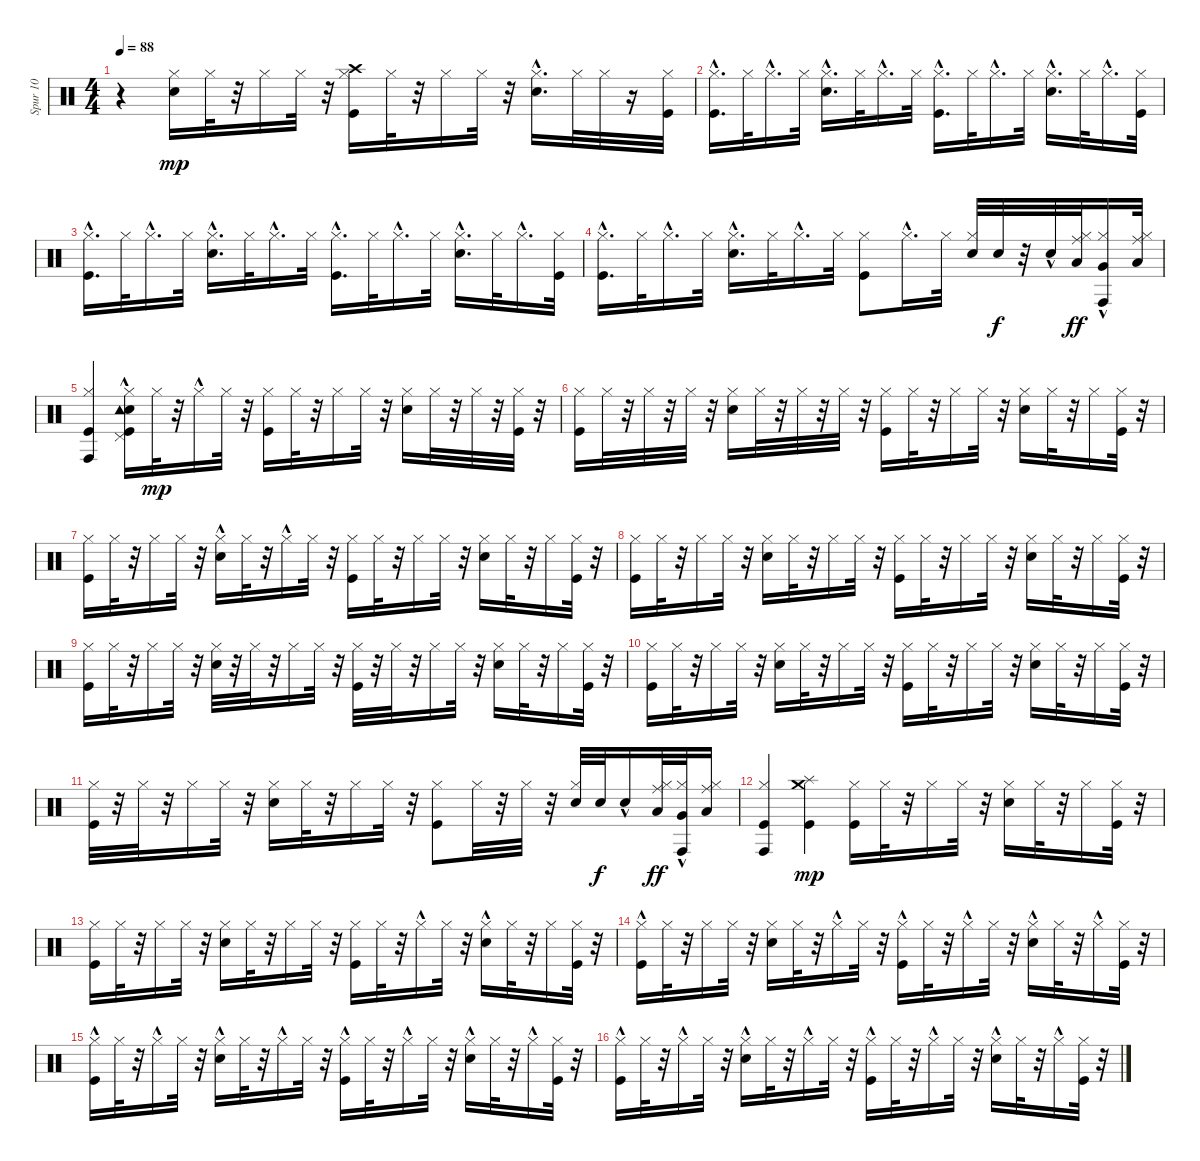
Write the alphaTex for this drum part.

\track ("Spur 10" "Spur 10") {instrument percussion}
\staff {score}
\articulation defaults
\ts (4 4)
\tempo 88
\clef neutral
\ks c
r.4{dy mp} ("Snare (hit) 2" "Hi-Hat (closed)").16 "Hi-Hat (closed)".32 r.32 "Hi-Hat (closed)".16 "Hi-Hat (closed)".32 r.32 ("Kick (hit)" "Hi-Hat (closed)" "Crash high (hit)").16 "Hi-Hat (closed)".32 r.32 "Hi-Hat (closed)".16 "Hi-Hat (closed)".32 r.32 ("Snare (hit) 2" "Hi-Hat (closed)"{hac}).16{d} "Hi-Hat (closed)".32 "Hi-Hat (closed)".32 r.16 ("Kick (hit)" "Hi-Hat (closed)").32 |
("Kick (hit)" "Hi-Hat (closed)"{hac}).16{d} "Hi-Hat (closed)".32 "Hi-Hat (closed)"{hac}.16{d} "Hi-Hat (closed)".32 ("Snare (hit) 2" "Hi-Hat (closed)"{hac}).16{d} "Hi-Hat (closed)".32 "Hi-Hat (closed)"{hac}.16{d} "Hi-Hat (closed)".32 ("Kick (hit)"{hac} "Hi-Hat (closed)"{hac}).16{d} "Hi-Hat (closed)".32 "Hi-Hat (closed)"{hac}.16{d} "Hi-Hat (closed)".32 ("Snare (hit) 2" "Hi-Hat (closed)"{hac}).16{d} "Hi-Hat (closed)".32 "Hi-Hat (closed)"{hac}.16{d} ("Kick (hit)" "Hi-Hat (closed)").32 |
("Kick (hit)" "Hi-Hat (closed)"{hac}).16{d} "Hi-Hat (closed)".32 "Hi-Hat (closed)"{hac}.16{d} "Hi-Hat (closed)".32 ("Snare (hit) 2"{hac} "Hi-Hat (closed)"{hac}).16{d} "Hi-Hat (closed)".32 "Hi-Hat (closed)"{hac}.16{d} "Hi-Hat (closed)".32 ("Kick (hit)"{hac} "Hi-Hat (closed)"{hac}).16{d} "Hi-Hat (closed)".32 "Hi-Hat (closed)"{hac}.16{d} "Hi-Hat (closed)".32 ("Snare (hit) 2" "Hi-Hat (closed)"{hac}).16{d} "Hi-Hat (closed)".32 "Hi-Hat (closed)"{hac}.16{d} ("Kick (hit)" "Hi-Hat (closed)").32 |
("Kick (hit)" "Hi-Hat (closed)"{hac}).16{d} "Hi-Hat (closed)".32 "Hi-Hat (closed)"{hac}.16{d} "Hi-Hat (closed)".32 ("Snare (hit) 2"{hac} "Hi-Hat (closed)"{hac}).16{d} "Hi-Hat (closed)".32 "Hi-Hat (closed)"{hac}.16{d} "Hi-Hat (closed)".32 ("Kick (hit)" "Hi-Hat (closed)").8 "Hi-Hat (closed)"{hac}.16{d} "Hi-Hat (closed)".32 ("Snare (hit) 2" "Hi-Hat (closed)").32 "Snare (hit) 2".32{dy f} r.32 "Snare (hit) 2"{hac}.32 ("Hi-Hat (closed)" "Low Tom (hit)" "Ride (middle)").32{dy ff} ("Hi-Hat (closed)" "Very Low Tom (hit)" "Conga high (hit)"{hac}).16 ("Low Floor Tom (hit)" "Hi-Hat (closed)" "Ride (middle)").32 |
("Kick (hit)" "Hi-Hat (closed)" "Conga high (hit)").4 ("Kick (hit)" "Snare (hit) 2" "Hi-Hat (closed)"{hac} "Pedal Hi-Hat (hit)" "Tambourine (hit)").16 "Hi-Hat (closed)".32{dy mp} r.32 "Hi-Hat (closed)"{hac}.16 "Hi-Hat (closed)".32 r.32 ("Kick (hit)" "Hi-Hat (closed)").16 "Hi-Hat (closed)".32 r.32 "Hi-Hat (closed)".16 "Hi-Hat (closed)".32 r.32 ("Snare (hit) 2" "Hi-Hat (closed)").16 "Hi-Hat (closed)".32 r.32 "Hi-Hat (closed)".32 r.32 ("Kick (hit)" "Hi-Hat (closed)").32 r.32 |
("Kick (hit)" "Hi-Hat (closed)").16 "Hi-Hat (closed)".32 r.32 "Hi-Hat (closed)".32 r.32 "Hi-Hat (closed)".32 r.32 ("Snare (hit) 2" "Hi-Hat (closed)").16 "Hi-Hat (closed)".32 r.32 "Hi-Hat (closed)".32 r.32 "Hi-Hat (closed)".32 r.32 ("Kick (hit)" "Hi-Hat (closed)").16 "Hi-Hat (closed)".32 r.32 "Hi-Hat (closed)".16 "Hi-Hat (closed)".32 r.32 ("Snare (hit) 2" "Hi-Hat (closed)").16 "Hi-Hat (closed)".32 r.32 "Hi-Hat (closed)".16 ("Kick (hit)" "Hi-Hat (closed)").32 r.32 |
("Kick (hit)" "Hi-Hat (closed)").16 "Hi-Hat (closed)".32 r.32 "Hi-Hat (closed)".16 "Hi-Hat (closed)".32 r.32 ("Snare (hit) 2" "Hi-Hat (closed)"{hac}).16 "Hi-Hat (closed)".32 r.32 "Hi-Hat (closed)"{hac}.16 "Hi-Hat (closed)".32 r.32 ("Kick (hit)" "Hi-Hat (closed)").16 "Hi-Hat (closed)".32 r.32 "Hi-Hat (closed)".16 "Hi-Hat (closed)".32 r.32 ("Snare (hit) 2" "Hi-Hat (closed)").16 "Hi-Hat (closed)".32 r.32 "Hi-Hat (closed)".16 ("Kick (hit)" "Hi-Hat (closed)").32 r.32 |
("Kick (hit)" "Hi-Hat (closed)").16 "Hi-Hat (closed)".32 r.32 "Hi-Hat (closed)".16 "Hi-Hat (closed)".32 r.32 ("Snare (hit) 2" "Hi-Hat (closed)").16 "Hi-Hat (closed)".32 r.32 "Hi-Hat (closed)".16 "Hi-Hat (closed)".32 r.32 ("Kick (hit)" "Hi-Hat (closed)").16 "Hi-Hat (closed)".32 r.32 "Hi-Hat (closed)".16 "Hi-Hat (closed)".32 r.32 ("Snare (hit) 2" "Hi-Hat (closed)").16 "Hi-Hat (closed)".32 r.32 "Hi-Hat (closed)".16 ("Kick (hit)" "Hi-Hat (closed)").32 r.32 |
("Kick (hit)" "Hi-Hat (closed)").16 "Hi-Hat (closed)".32 r.32 "Hi-Hat (closed)".16 "Hi-Hat (closed)".32 r.32 ("Snare (hit) 2" "Hi-Hat (closed)").32 r.32 "Hi-Hat (closed)".32 r.32 "Hi-Hat (closed)".16 "Hi-Hat (closed)".32 r.32 ("Kick (hit)" "Hi-Hat (closed)").32 r.32 "Hi-Hat (closed)".32 r.32 "Hi-Hat (closed)".16 "Hi-Hat (closed)".32 r.32 ("Snare (hit) 2" "Hi-Hat (closed)").16 "Hi-Hat (closed)".32 r.32 "Hi-Hat (closed)".16 ("Kick (hit)" "Hi-Hat (closed)").32 r.32 |
("Kick (hit)" "Hi-Hat (closed)").16 "Hi-Hat (closed)".32 r.32 "Hi-Hat (closed)".16 "Hi-Hat (closed)".32 r.32 ("Snare (hit) 2" "Hi-Hat (closed)").16 "Hi-Hat (closed)".32 r.32 "Hi-Hat (closed)".16 "Hi-Hat (closed)".32 r.32 ("Kick (hit)" "Hi-Hat (closed)").16 "Hi-Hat (closed)".32 r.32 "Hi-Hat (closed)".16 "Hi-Hat (closed)".32 r.32 ("Snare (hit) 2" "Hi-Hat (closed)").16 "Hi-Hat (closed)".32 r.32 "Hi-Hat (closed)".16 ("Kick (hit)" "Hi-Hat (closed)").32 r.32 |
("Kick (hit)" "Hi-Hat (closed)").32 r.32 "Hi-Hat (closed)".32 r.32 "Hi-Hat (closed)".16 "Hi-Hat (closed)".32 r.32 ("Snare (hit) 2" "Hi-Hat (closed)").16 "Hi-Hat (closed)".32 r.32 "Hi-Hat (closed)".16 "Hi-Hat (closed)".32 r.32 ("Kick (hit)" "Hi-Hat (closed)").8 "Hi-Hat (closed)".32 r.32 "Hi-Hat (closed)".32 r.32 ("Snare (hit) 2" "Hi-Hat (closed)").32 "Snare (hit) 2".32{dy f} "Snare (hit) 2"{hac}.16 ("Hi-Hat (closed)" "Low Tom (hit)" "Ride (middle)").32{dy ff} ("Hi-Hat (closed)" "Very Low Tom (hit)" "Conga high (hit)"{hac}).32 ("Low Floor Tom (hit)" "Hi-Hat (closed)" "Ride (middle)").16 |
("Kick (hit)" "Hi-Hat (closed)" "Conga high (hit)").4 ("Kick (hit)" "Splash (hit)" "Crash medium (hit)").4{dy mp} ("Kick (hit)" "Hi-Hat (closed)").16 "Hi-Hat (closed)".32 r.32 "Hi-Hat (closed)".16 "Hi-Hat (closed)".32 r.32 ("Snare (hit) 2" "Hi-Hat (closed)").16 "Hi-Hat (closed)".32 r.32 "Hi-Hat (closed)".16 ("Kick (hit)" "Hi-Hat (closed)").32 r.32 |
("Kick (hit)" "Hi-Hat (closed)").16 "Hi-Hat (closed)".32 r.32 "Hi-Hat (closed)".16 "Hi-Hat (closed)".32 r.32 ("Snare (hit) 2" "Hi-Hat (closed)").16 "Hi-Hat (closed)".32 r.32 "Hi-Hat (closed)".16 "Hi-Hat (closed)".32 r.32 ("Kick (hit)" "Hi-Hat (closed)").16 "Hi-Hat (closed)".32 r.32 "Hi-Hat (closed)"{hac}.16 "Hi-Hat (closed)".32 r.32 ("Snare (hit) 2" "Hi-Hat (closed)"{hac}).16 "Hi-Hat (closed)".32 r.32 "Hi-Hat (closed)".16 ("Kick (hit)" "Hi-Hat (closed)").32 r.32 |
("Kick (hit)" "Hi-Hat (closed)"{hac}).16 "Hi-Hat (closed)".32 r.32 "Hi-Hat (closed)".16 "Hi-Hat (closed)".32 r.32 ("Snare (hit) 2" "Hi-Hat (closed)").16 "Hi-Hat (closed)".32 r.32 "Hi-Hat (closed)"{hac}.16 "Hi-Hat (closed)".32 r.32 ("Kick (hit)"{hac} "Hi-Hat (closed)"{hac}).16 "Hi-Hat (closed)".32 r.32 "Hi-Hat (closed)"{hac}.16 "Hi-Hat (closed)".32 r.32 ("Snare (hit) 2" "Hi-Hat (closed)"{hac}).16 "Hi-Hat (closed)".32 r.32 "Hi-Hat (closed)"{hac}.16 ("Kick (hit)" "Hi-Hat (closed)").32 r.32 |
("Kick (hit)" "Hi-Hat (closed)"{hac}).16 "Hi-Hat (closed)".32 r.32 "Hi-Hat (closed)"{hac}.16 "Hi-Hat (closed)".32 r.32 ("Snare (hit) 2" "Hi-Hat (closed)"{hac}).16 "Hi-Hat (closed)".32 r.32 "Hi-Hat (closed)"{hac}.16 "Hi-Hat (closed)".32 r.32 ("Kick (hit)"{hac} "Hi-Hat (closed)"{hac}).16 "Hi-Hat (closed)".32 r.32 "Hi-Hat (closed)"{hac}.16 "Hi-Hat (closed)".32 r.32 ("Snare (hit) 2" "Hi-Hat (closed)"{hac}).16 "Hi-Hat (closed)".32 r.32 "Hi-Hat (closed)"{hac}.16 ("Kick (hit)" "Hi-Hat (closed)").32 r.32 |
("Kick (hit)" "Hi-Hat (closed)"{hac}).16 "Hi-Hat (closed)".32 r.32 "Hi-Hat (closed)"{hac}.16 "Hi-Hat (closed)".32 r.32 ("Snare (hit) 2" "Hi-Hat (closed)"{hac}).16 "Hi-Hat (closed)".32 r.32 "Hi-Hat (closed)"{hac}.16 "Hi-Hat (closed)".32 r.32 ("Kick (hit)"{hac} "Hi-Hat (closed)"{hac}).16 "Hi-Hat (closed)".32 r.32 "Hi-Hat (closed)"{hac}.16 "Hi-Hat (closed)".32 r.32 ("Snare (hit) 2" "Hi-Hat (closed)"{hac}).16 "Hi-Hat (closed)".32 r.32 "Hi-Hat (closed)"{hac}.16 ("Kick (hit)" "Hi-Hat (closed)").32 r.32
